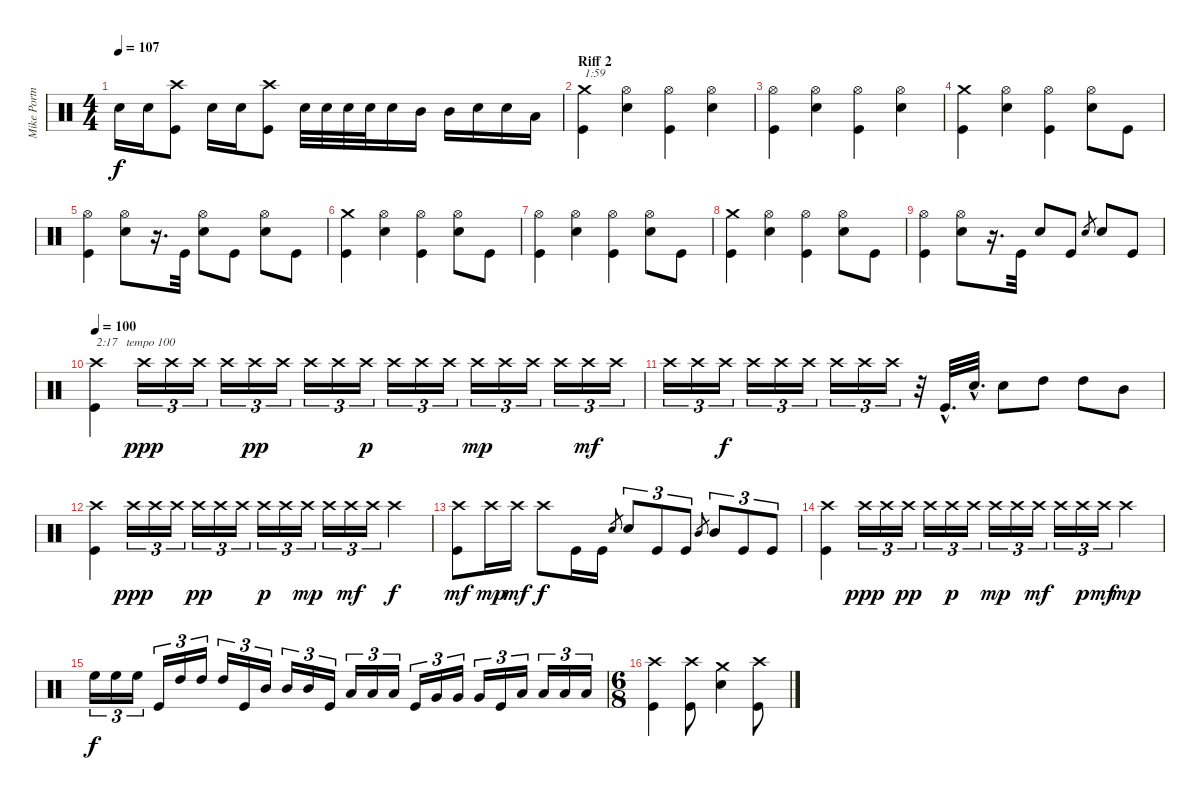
\track ("Mike Portnoy" "Mike Portn") {instrument percussion}
\staff {score}
\articulation defaults
\ts (4 4)
\tempo 107
\clef neutral
\ks c "Snare (hit) 2".16{dy f} "Snare (hit) 2".16
("Crash high (hit)" "Kick (hit)").8 "Snare (hit) 2".16 "Snare (hit) 2".16 ("Crash high (hit)" "Kick (hit)").8 "Snare (hit) 2".32 "Snare (hit) 2".32 "Snare (hit) 2".32 "Snare (hit) 2".32 "Snare (hit) 2".16 "Mid Tom (hit)".16 "Mid Tom (hit)".16 "Snare (hit) 2".16 "Snare (hit) 2".16 "Low Tom (hit)".16 |
\section ("" "Riff 2")
("Crash medium (hit)" "Kick (hit)").4{txt "1:59"} ("Hi-Hat (open)" "Snare (hit) 2").4 ("Hi-Hat (open)" "Kick (hit)").4 ("Hi-Hat (open)" "Snare (hit) 2").4 |
("Hi-Hat (open)" "Kick (hit)").4 ("Hi-Hat (open)" "Snare (hit) 2").4 ("Hi-Hat (open)" "Kick (hit)").4 ("Hi-Hat (open)" "Snare (hit) 2").4 |
("Crash medium (hit)" "Kick (hit)").4 ("Hi-Hat (open)" "Snare (hit) 2").4 ("Hi-Hat (open)" "Kick (hit)").4 ("Hi-Hat (open)" "Snare (hit) 2").8 "Kick (hit)".8 |
("Hi-Hat (open)" "Kick (hit)").4 ("Hi-Hat (open)" "Snare (hit) 2").8 r.16{d} "Kick (hit)".32 ("Hi-Hat (open)" "Snare (hit) 2").8 "Kick (hit)".8 ("Hi-Hat (open)" "Snare (hit) 2").8 "Kick (hit)".8 |
("Crash medium (hit)" "Kick (hit)").4 ("Hi-Hat (open)" "Snare (hit) 2").4 ("Hi-Hat (open)" "Kick (hit)").4 ("Hi-Hat (open)" "Snare (hit) 2").8 "Kick (hit)".8 |
("Hi-Hat (open)" "Kick (hit)").4 ("Hi-Hat (open)" "Snare (hit) 2").4 ("Hi-Hat (open)" "Kick (hit)").4 ("Hi-Hat (open)" "Snare (hit) 2").8 "Kick (hit)".8 |
("Crash medium (hit)" "Kick (hit)").4 ("Hi-Hat (open)" "Snare (hit) 2").4 ("Hi-Hat (open)" "Kick (hit)").4 ("Hi-Hat (open)" "Snare (hit) 2").8 "Kick (hit)".8 |
("Hi-Hat (open)" "Kick (hit)").4 ("Hi-Hat (open)" "Snare (hit) 2").8 r.16{d} "Kick (hit)".32 "Snare (hit) 2".8 "Kick (hit)".8 "Snare (hit) 2".8{gr} "Snare (hit) 2".8 "Kick (hit)".8 |
\section ("" "")
\tempo 100
("Crash high (hit)" "Kick (hit)").4{txt "2:17   tempo 100"} "Crash high (hit)".16{tu (3 2) dy ppp} "Crash high (hit)".16{tu (3 2)} "Crash high (hit)".16{tu (3 2)} "Crash high (hit)".16{tu (3 2)} "Crash high (hit)".16{tu (3 2) dy pp} "Crash high (hit)".16{tu (3 2)} "Crash high (hit)".16{tu (3 2)} "Crash high (hit)".16{tu (3 2)} "Crash high (hit)".16{tu (3 2) dy p} "Crash high (hit)".16{tu (3 2)} "Crash high (hit)".16{tu (3 2)} "Crash high (hit)".16{tu (3 2)} "Crash high (hit)".16{tu (3 2) dy mp} "Crash high (hit)".16{tu (3 2)} "Crash high (hit)".16{tu (3 2)} "Crash high (hit)".16{tu (3 2)} "Crash high (hit)".16{tu (3 2) dy mf} "Crash high (hit)".16{tu (3 2)} |
"Crash high (hit)".16{tu (3 2)} "Crash high (hit)".16{tu (3 2)} "Crash high (hit)".16{tu (3 2) dy f} "Crash high (hit)".16{tu (3 2)} "Crash high (hit)".16{tu (3 2)} "Crash high (hit)".16{tu (3 2)} "Crash high (hit)".16{tu (3 2)} "Crash high (hit)".16{tu (3 2)} "Crash high (hit)".16{tu (3 2)} r.32 "Kick (hit)"{hac}.32{d} "Snare (hit) 2"{hac}.32{d} "Snare (hit) 2".8 "High Tom (hit)".8 "High Tom (hit)".8 "Mid Tom (hit)".8 |
("Crash high (hit)" "Kick (hit)").4 "Crash high (hit)".16{tu (3 2) dy ppp} "Crash high (hit)".16{tu (3 2)} "Crash high (hit)".16{tu (3 2)} "Crash high (hit)".16{tu (3 2) dy pp} "Crash high (hit)".16{tu (3 2)} "Crash high (hit)".16{tu (3 2)} "Crash high (hit)".16{tu (3 2) dy p} "Crash high (hit)".16{tu (3 2)} "Crash high (hit)".16{tu (3 2) dy mp} "Crash high (hit)".16{tu (3 2)} "Crash high (hit)".16{tu (3 2) dy mf} "Crash high (hit)".16{tu (3 2)} "Crash high (hit)".4{dy f} |
("Crash high (hit)" "Kick (hit)").8{dy mf} "Crash high (hit)".16{dy mp} "Crash high (hit)".16{dy mf} "Crash high (hit)".8{dy f} "Kick (hit)".16 "Kick (hit)".16 "Snare (hit) 2".8{gr} "Snare (hit) 2".8{tu (3 2)} "Kick (hit)".8{tu (3 2)} "Kick (hit)".8{tu (3 2)} "Mid Tom (hit)".8{gr} "Mid Tom (hit)".8{tu (3 2)} "Kick (hit)".8{tu (3 2)} "Kick (hit)".8{tu (3 2)} |
("Crash high (hit)" "Kick (hit)").4 "Crash high (hit)".16{tu (3 2) dy ppp} "Crash high (hit)".16{tu (3 2)} "Crash high (hit)".16{tu (3 2) dy pp} "Crash high (hit)".16{tu (3 2)} "Crash high (hit)".16{tu (3 2) dy p} "Crash high (hit)".16{tu (3 2)} "Crash high (hit)".16{tu (3 2) dy mp} "Crash high (hit)".16{tu (3 2)} "Crash high (hit)".16{tu (3 2) dy mf} "Crash high (hit)".16{tu (3 2)} "Crash high (hit)".16{tu (3 2) dy p} "Crash high (hit)".16{tu (3 2) dy mf} "Crash high (hit)".4{dy mp} |
"High Floor Tom (hit)".16{tu (3 2) dy f} "High Floor Tom (hit)".16{tu (3 2)} "High Floor Tom (hit)".16{tu (3 2)} "Kick (hit)".16{tu (3 2)} "High Tom (hit)".16{tu (3 2)} "High Tom (hit)".16{tu (3 2)} "High Tom (hit)".16{tu (3 2)} "Kick (hit)".16{tu (3 2)} "Mid Tom (hit)".16{tu (3 2)} "Mid Tom (hit)".16{tu (3 2)} "Mid Tom (hit)".16{tu (3 2)} "Kick (hit)".16{tu (3 2)} "Low Tom (hit)".16{tu (3 2)} "Low Tom (hit)".16{tu (3 2)} "Low Tom (hit)".16{tu (3 2)} "Kick (hit)".16{tu (3 2)} "Very Low Tom (hit)".16{tu (3 2)} "Very Low Tom (hit)".16{tu (3 2)} "Very Low Tom (hit)".16{tu (3 2)} "Kick (hit)".16{tu (3 2)} "Low Floor Tom (hit)".16{tu (3 2)} "Low Floor Tom (hit)".16{tu (3 2)} "Low Floor Tom (hit)".16{tu (3 2)} "Low Floor Tom (hit)".16{tu (3 2)} |
\ts (6 8)
("Crash high (hit)" "Kick (hit)").4 ("Crash high (hit)" "Kick (hit)").8 ("Crash medium (hit)" "Snare (hit) 2").4 ("Crash high (hit)" "Kick (hit)").8
